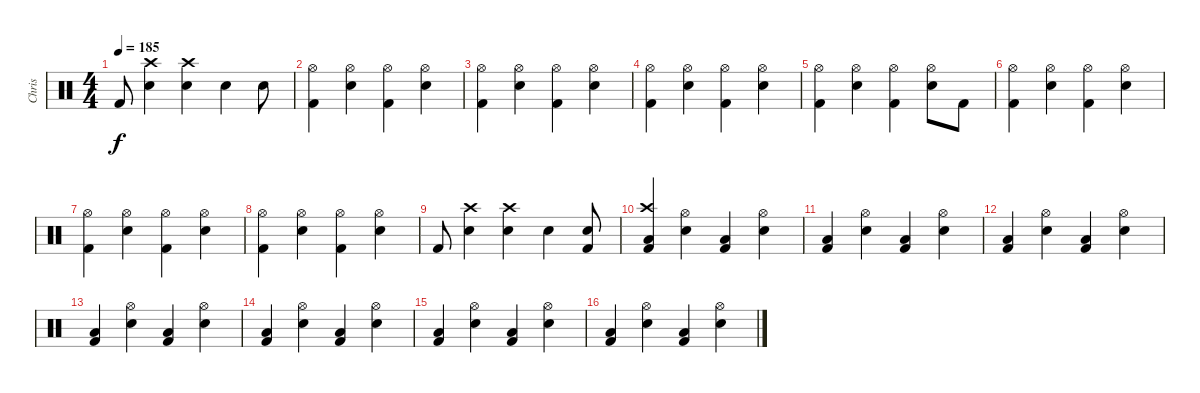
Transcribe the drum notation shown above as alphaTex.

\track ("Chris" "Chris") {instrument percussion}
\staff {score}
\articulation defaults
\ts (4 4)
\tempo 185
\clef neutral
\ks c "Kick (hit) 2".8{dy f}
("Snare (hit) 2" "Crash high (hit)").4 ("Snare (hit) 2" "Crash high (hit)").4 "Snare (hit) 2".4 "Snare (hit) 2".8 |
("Hi-Hat (open)" "Kick (hit) 2").4 ("Snare (hit) 2" "Hi-Hat (open)").4 ("Hi-Hat (open)" "Kick (hit) 2").4 ("Snare (hit) 2" "Hi-Hat (open)").4 |
("Hi-Hat (open)" "Kick (hit) 2").4 ("Snare (hit) 2" "Hi-Hat (open)").4 ("Hi-Hat (open)" "Kick (hit) 2").4 ("Snare (hit) 2" "Hi-Hat (open)").4 |
("Hi-Hat (open)" "Kick (hit) 2").4 ("Snare (hit) 2" "Hi-Hat (open)").4 ("Hi-Hat (open)" "Kick (hit) 2").4 ("Snare (hit) 2" "Hi-Hat (open)").4 |
("Hi-Hat (open)" "Kick (hit) 2").4 ("Snare (hit) 2" "Hi-Hat (open)").4 ("Hi-Hat (open)" "Kick (hit) 2").4 ("Snare (hit) 2" "Hi-Hat (open)").8 "Kick (hit) 2".8 |
("Hi-Hat (open)" "Kick (hit) 2").4 ("Snare (hit) 2" "Hi-Hat (open)").4 ("Hi-Hat (open)" "Kick (hit) 2").4 ("Snare (hit) 2" "Hi-Hat (open)").4 |
("Hi-Hat (open)" "Kick (hit) 2").4 ("Snare (hit) 2" "Hi-Hat (open)").4 ("Hi-Hat (open)" "Kick (hit) 2").4 ("Snare (hit) 2" "Hi-Hat (open)").4 |
("Hi-Hat (open)" "Kick (hit) 2").4 ("Snare (hit) 2" "Hi-Hat (open)").4 ("Hi-Hat (open)" "Kick (hit) 2").4 ("Snare (hit) 2" "Hi-Hat (open)").4 |
"Kick (hit) 2".8 ("Snare (hit) 2" "Crash high (hit)").4 ("Snare (hit) 2" "Crash high (hit)").4 "Snare (hit) 2".4 ("Snare (hit) 2" "Kick (hit) 2").8 |
("Crash high (hit)" "Low Tom (hit)" "Kick (hit) 2").4 ("Snare (hit) 2" "Hi-Hat (open)").4 ("Low Tom (hit)" "Kick (hit) 2").4 ("Snare (hit) 2" "Hi-Hat (open)").4 |
("Low Tom (hit)" "Kick (hit) 2").4 ("Snare (hit) 2" "Hi-Hat (open)").4 ("Low Tom (hit)" "Kick (hit) 2").4 ("Snare (hit) 2" "Hi-Hat (open)").4 |
("Low Tom (hit)" "Kick (hit) 2").4 ("Snare (hit) 2" "Hi-Hat (open)").4 ("Low Tom (hit)" "Kick (hit) 2").4 ("Snare (hit) 2" "Hi-Hat (open)").4 |
("Low Tom (hit)" "Kick (hit) 2").4 ("Snare (hit) 2" "Hi-Hat (open)").4 ("Low Tom (hit)" "Kick (hit) 2").4 ("Snare (hit) 2" "Hi-Hat (open)").4 |
("Low Tom (hit)" "Kick (hit) 2").4 ("Snare (hit) 2" "Hi-Hat (open)").4 ("Low Tom (hit)" "Kick (hit) 2").4 ("Snare (hit) 2" "Hi-Hat (open)").4 |
("Low Tom (hit)" "Kick (hit) 2").4 ("Snare (hit) 2" "Hi-Hat (open)").4 ("Low Tom (hit)" "Kick (hit) 2").4 ("Snare (hit) 2" "Hi-Hat (open)").4 |
("Low Tom (hit)" "Kick (hit) 2").4 ("Snare (hit) 2" "Hi-Hat (open)").4 ("Low Tom (hit)" "Kick (hit) 2").4 ("Snare (hit) 2" "Hi-Hat (open)").4
